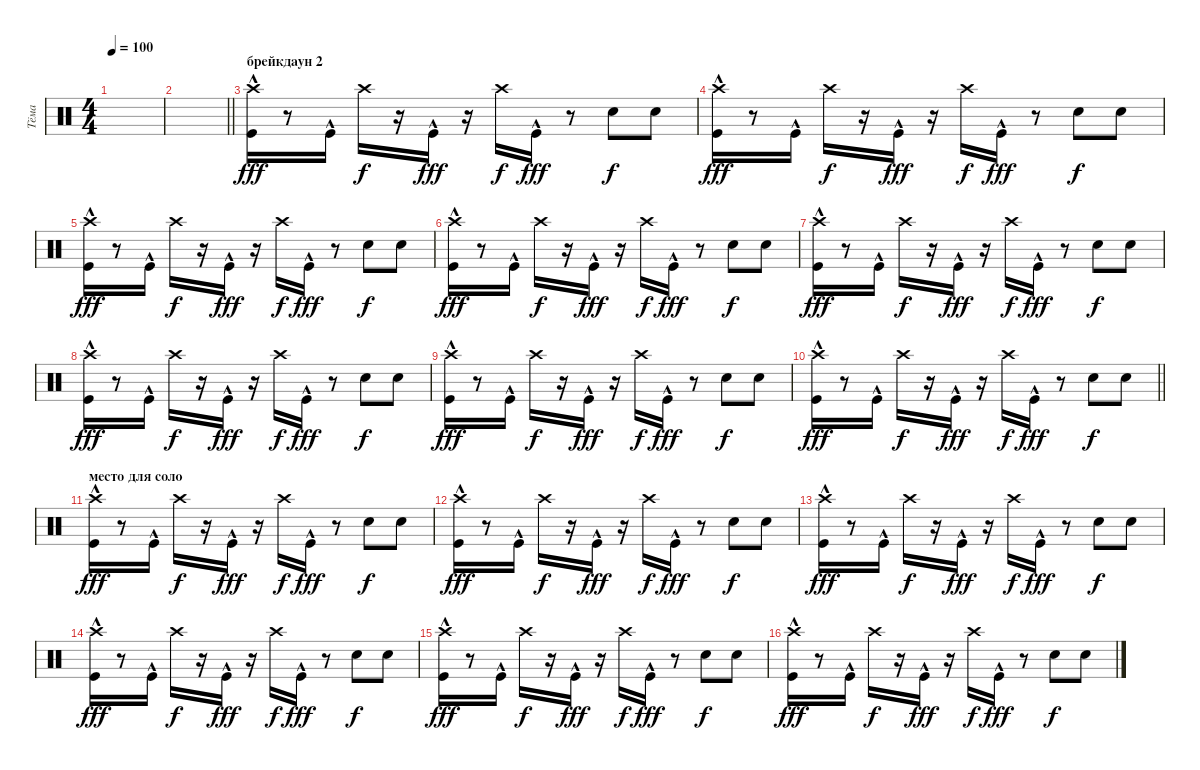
\track ("Тёма" "Тёма") {instrument percussion}
\staff {score}
\articulation defaults
\ts (4 4)
\tempo 100
\clef neutral
\ks c
|
\barLineRight lightlight
|
\section ("" "брейкдаун 2")
("Crash high (hit)" "Kick (hit)"{hac}).16{dy fff} r.8 "Kick (hit)"{hac}.16 "Crash high (hit)".16{dy f} r.16 "Kick (hit)"{hac}.16{dy fff} r.16 "Crash high (hit)".16{dy f} "Kick (hit)"{hac}.16{dy fff} r.8 "Snare (hit) 2".8{dy f} "Snare (hit) 2".8 |
("Crash high (hit)" "Kick (hit)"{hac}).16{dy fff} r.8 "Kick (hit)"{hac}.16 "Crash high (hit)".16{dy f} r.16 "Kick (hit)"{hac}.16{dy fff} r.16 "Crash high (hit)".16{dy f} "Kick (hit)"{hac}.16{dy fff} r.8 "Snare (hit) 2".8{dy f} "Snare (hit) 2".8 |
("Crash high (hit)" "Kick (hit)"{hac}).16{dy fff} r.8 "Kick (hit)"{hac}.16 "Crash high (hit)".16{dy f} r.16 "Kick (hit)"{hac}.16{dy fff} r.16 "Crash high (hit)".16{dy f} "Kick (hit)"{hac}.16{dy fff} r.8 "Snare (hit) 2".8{dy f} "Snare (hit) 2".8 |
("Crash high (hit)" "Kick (hit)"{hac}).16{dy fff} r.8 "Kick (hit)"{hac}.16 "Crash high (hit)".16{dy f} r.16 "Kick (hit)"{hac}.16{dy fff} r.16 "Crash high (hit)".16{dy f} "Kick (hit)"{hac}.16{dy fff} r.8 "Snare (hit) 2".8{dy f} "Snare (hit) 2".8 |
("Crash high (hit)" "Kick (hit)"{hac}).16{dy fff} r.8 "Kick (hit)"{hac}.16 "Crash high (hit)".16{dy f} r.16 "Kick (hit)"{hac}.16{dy fff} r.16 "Crash high (hit)".16{dy f} "Kick (hit)"{hac}.16{dy fff} r.8 "Snare (hit) 2".8{dy f} "Snare (hit) 2".8 |
("Crash high (hit)" "Kick (hit)"{hac}).16{dy fff} r.8 "Kick (hit)"{hac}.16 "Crash high (hit)".16{dy f} r.16 "Kick (hit)"{hac}.16{dy fff} r.16 "Crash high (hit)".16{dy f} "Kick (hit)"{hac}.16{dy fff} r.8 "Snare (hit) 2".8{dy f} "Snare (hit) 2".8 |
("Crash high (hit)" "Kick (hit)"{hac}).16{dy fff} r.8 "Kick (hit)"{hac}.16 "Crash high (hit)".16{dy f} r.16 "Kick (hit)"{hac}.16{dy fff} r.16 "Crash high (hit)".16{dy f} "Kick (hit)"{hac}.16{dy fff} r.8 "Snare (hit) 2".8{dy f} "Snare (hit) 2".8 |
\barLineRight lightlight
("Crash high (hit)" "Kick (hit)"{hac}).16{dy fff} r.8 "Kick (hit)"{hac}.16 "Crash high (hit)".16{dy f} r.16 "Kick (hit)"{hac}.16{dy fff} r.16 "Crash high (hit)".16{dy f} "Kick (hit)"{hac}.16{dy fff} r.8 "Snare (hit) 2".8{dy f} "Snare (hit) 2".8 |
\section ("" "место для соло")
("Crash high (hit)" "Kick (hit)"{hac}).16{dy fff} r.8 "Kick (hit)"{hac}.16 "Crash high (hit)".16{dy f} r.16 "Kick (hit)"{hac}.16{dy fff} r.16 "Crash high (hit)".16{dy f} "Kick (hit)"{hac}.16{dy fff} r.8 "Snare (hit) 2".8{dy f} "Snare (hit) 2".8 |
("Crash high (hit)" "Kick (hit)"{hac}).16{dy fff} r.8 "Kick (hit)"{hac}.16 "Crash high (hit)".16{dy f} r.16 "Kick (hit)"{hac}.16{dy fff} r.16 "Crash high (hit)".16{dy f} "Kick (hit)"{hac}.16{dy fff} r.8 "Snare (hit) 2".8{dy f} "Snare (hit) 2".8 |
("Crash high (hit)" "Kick (hit)"{hac}).16{dy fff} r.8 "Kick (hit)"{hac}.16 "Crash high (hit)".16{dy f} r.16 "Kick (hit)"{hac}.16{dy fff} r.16 "Crash high (hit)".16{dy f} "Kick (hit)"{hac}.16{dy fff} r.8 "Snare (hit) 2".8{dy f} "Snare (hit) 2".8 |
("Crash high (hit)" "Kick (hit)"{hac}).16{dy fff} r.8 "Kick (hit)"{hac}.16 "Crash high (hit)".16{dy f} r.16 "Kick (hit)"{hac}.16{dy fff} r.16 "Crash high (hit)".16{dy f} "Kick (hit)"{hac}.16{dy fff} r.8 "Snare (hit) 2".8{dy f} "Snare (hit) 2".8 |
("Crash high (hit)" "Kick (hit)"{hac}).16{dy fff} r.8 "Kick (hit)"{hac}.16 "Crash high (hit)".16{dy f} r.16 "Kick (hit)"{hac}.16{dy fff} r.16 "Crash high (hit)".16{dy f} "Kick (hit)"{hac}.16{dy fff} r.8 "Snare (hit) 2".8{dy f} "Snare (hit) 2".8 |
("Crash high (hit)" "Kick (hit)"{hac}).16{dy fff} r.8 "Kick (hit)"{hac}.16 "Crash high (hit)".16{dy f} r.16 "Kick (hit)"{hac}.16{dy fff} r.16 "Crash high (hit)".16{dy f} "Kick (hit)"{hac}.16{dy fff} r.8 "Snare (hit) 2".8{dy f} "Snare (hit) 2".8
